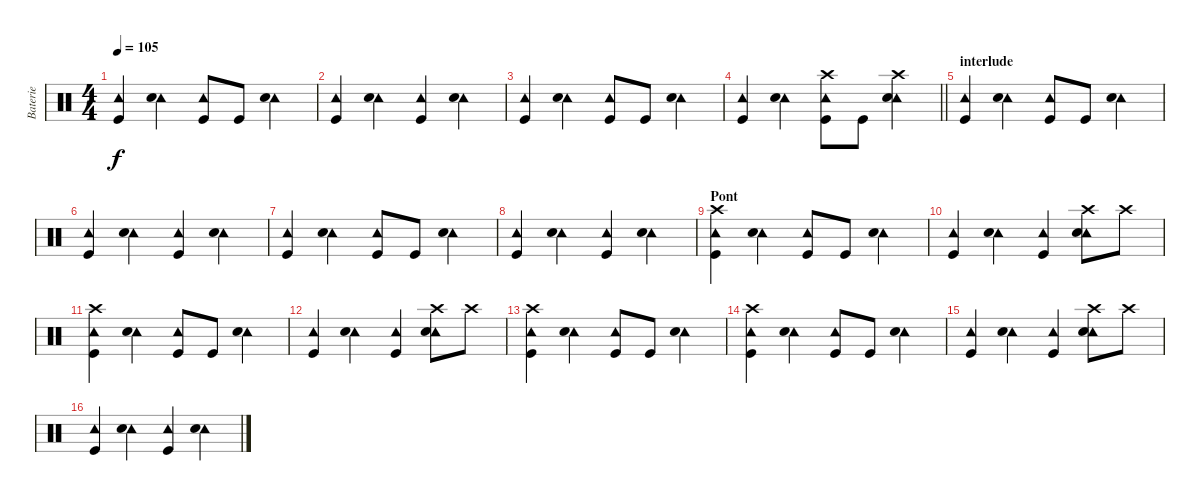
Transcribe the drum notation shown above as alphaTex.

\track ("Baterie" "Baterie") {instrument percussion}
\staff {score}
\articulation defaults
\ts (4 4)
\tempo 105
\clef neutral
\ks c
("Tambourine (hit)" "Kick (hit)").4{dy f} ("Tambourine (hit)" "Snare (hit) 2").4 ("Tambourine (hit)" "Kick (hit)").8 "Kick (hit)".8 ("Tambourine (hit)" "Snare (hit) 2").4 |
("Tambourine (hit)" "Kick (hit)").4 ("Tambourine (hit)" "Snare (hit) 2").4 ("Tambourine (hit)" "Kick (hit)").4 ("Tambourine (hit)" "Snare (hit) 2").4 |
("Tambourine (hit)" "Kick (hit)").4 ("Tambourine (hit)" "Snare (hit) 2").4 ("Tambourine (hit)" "Kick (hit)").8 "Kick (hit)".8 ("Tambourine (hit)" "Snare (hit) 2").4 |
\barLineRight lightlight
("Tambourine (hit)" "Kick (hit)").4 ("Tambourine (hit)" "Snare (hit) 2").4 ("Tambourine (hit)" "Crash high (hit)" "Kick (hit)").8 "Kick (hit)".8 ("Tambourine (hit)" "Crash high (hit)" "Snare (hit) 2").4 |
\section ("" "interlude")
("Tambourine (hit)" "Kick (hit)").4 ("Tambourine (hit)" "Snare (hit) 2").4 ("Tambourine (hit)" "Kick (hit)").8 "Kick (hit)".8 ("Tambourine (hit)" "Snare (hit) 2").4 |
("Tambourine (hit)" "Kick (hit)").4 ("Tambourine (hit)" "Snare (hit) 2").4 ("Tambourine (hit)" "Kick (hit)").4 ("Tambourine (hit)" "Snare (hit) 2").4 |
("Tambourine (hit)" "Kick (hit)").4 ("Tambourine (hit)" "Snare (hit) 2").4 ("Tambourine (hit)" "Kick (hit)").8 "Kick (hit)".8 ("Tambourine (hit)" "Snare (hit) 2").4 |
("Tambourine (hit)" "Kick (hit)").4 ("Tambourine (hit)" "Snare (hit) 2").4 ("Tambourine (hit)" "Kick (hit)").4 ("Tambourine (hit)" "Snare (hit) 2").4 |
\section ("" "Pont")
("Tambourine (hit)" "Crash high (hit)" "Kick (hit)").4 ("Tambourine (hit)" "Snare (hit) 2").4 ("Tambourine (hit)" "Kick (hit)").8 "Kick (hit)".8 ("Tambourine (hit)" "Snare (hit) 2").4 |
("Tambourine (hit)" "Kick (hit)").4 ("Tambourine (hit)" "Snare (hit) 2").4 ("Tambourine (hit)" "Kick (hit)").4 ("Tambourine (hit)" "Crash high (hit)" "Snare (hit) 2").8 "Crash high (hit)".8 |
("Tambourine (hit)" "Crash high (hit)" "Kick (hit)").4 ("Tambourine (hit)" "Snare (hit) 2").4 ("Tambourine (hit)" "Kick (hit)").8 "Kick (hit)".8 ("Tambourine (hit)" "Snare (hit) 2").4 |
("Tambourine (hit)" "Kick (hit)").4 ("Tambourine (hit)" "Snare (hit) 2").4 ("Tambourine (hit)" "Kick (hit)").4 ("Tambourine (hit)" "Crash high (hit)" "Snare (hit) 2").8 "Crash high (hit)".8 |
("Tambourine (hit)" "Crash high (hit)" "Kick (hit)").4 ("Tambourine (hit)" "Snare (hit) 2").4 ("Tambourine (hit)" "Kick (hit)").8 "Kick (hit)".8 ("Tambourine (hit)" "Snare (hit) 2").4 |
("Tambourine (hit)" "Crash high (hit)" "Kick (hit)").4 ("Tambourine (hit)" "Snare (hit) 2").4 ("Tambourine (hit)" "Kick (hit)").8 "Kick (hit)".8 ("Tambourine (hit)" "Snare (hit) 2").4 |
("Tambourine (hit)" "Kick (hit)").4 ("Tambourine (hit)" "Snare (hit) 2").4 ("Tambourine (hit)" "Kick (hit)").4 ("Tambourine (hit)" "Crash high (hit)" "Snare (hit) 2").8 "Crash high (hit)".8 |
("Tambourine (hit)" "Kick (hit)").4 ("Tambourine (hit)" "Snare (hit) 2").4 ("Tambourine (hit)" "Kick (hit)").4 ("Tambourine (hit)" "Snare (hit) 2").4
